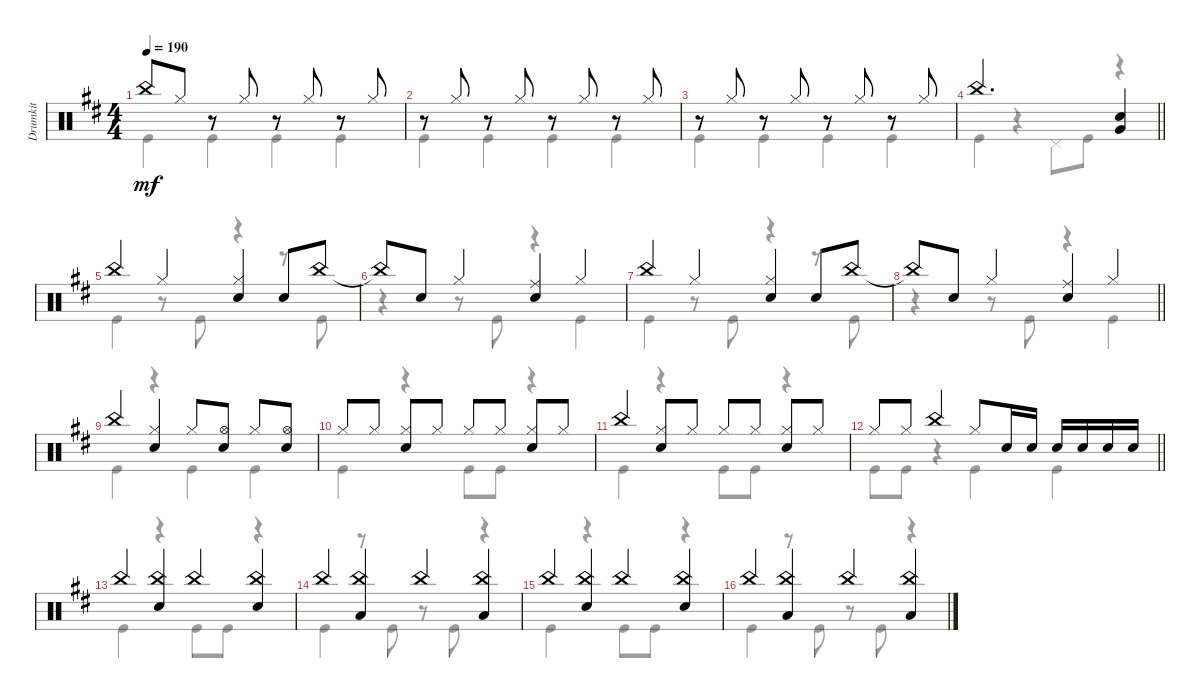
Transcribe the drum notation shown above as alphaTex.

\track ("Drumkit" "Drumkit") {instrument percussion}
\staff {score}
\articulation defaults
\voice
\ts (4 4)
\tempo 190
\clef neutral
\ks d "China (hit)".8{dy mf} "Hi-Hat (closed)".8
r.8 "Hi-Hat (closed)".8 r.8 "Hi-Hat (closed)".8 r.8 "Hi-Hat (closed)".8 |
r.8 "Hi-Hat (closed)".8 r.8 "Hi-Hat (closed)".8 r.8 "Hi-Hat (closed)".8 r.8 "Hi-Hat (closed)".8 |
r.8 "Hi-Hat (closed)".8 r.8 "Hi-Hat (closed)".8 r.8 "Hi-Hat (closed)".8 r.8 "Hi-Hat (closed)".8 |
\barLineRight lightlight "China (hit)".2{d}
("Snare (hit) 2" "Very Low Tom (hit)").4 |
\section ("" "")
"China (hit)".4 "Hi-Hat (closed)".4 ("Hi-Hat (closed)" "Snare (hit) 2").4 "Snare (hit) 2".8 "China (hit)".8 |
"China (hit)"{t}.8 "Snare (hit) 2".8 "Hi-Hat (closed)".4 ("Ride (middle)" "Snare (hit) 2").4 "Hi-Hat (closed)".4 |
"China (hit)".4 "Hi-Hat (closed)".4 ("Hi-Hat (closed)" "Snare (hit) 2").4 "Snare (hit) 2".8 "China (hit)".8 |
\barLineRight lightlight "China (hit)"{t}.8 "Snare (hit) 2".8 "Hi-Hat (closed)".4
("Ride (middle)" "Snare (hit) 2").4 "Hi-Hat (closed)".4 |
\section ("" "")
"China (hit)".4 ("Hi-Hat (closed)" "Snare (hit) 2").4 "Hi-Hat (closed)".8 ("Hi-Hat (open)" "Snare (hit) 2").8 "Hi-Hat (closed)".8 ("Hi-Hat (open)" "Snare (hit) 2").8 |
"Hi-Hat (closed)".8 "Hi-Hat (closed)".8 ("Hi-Hat (closed)" "Snare (hit) 2").8 "Hi-Hat (closed)".8 "Hi-Hat (closed)".8 "Hi-Hat (closed)".8 ("Hi-Hat (closed)" "Snare (hit) 2").8 "Hi-Hat (closed)".8 |
"China (hit)".4 ("Hi-Hat (closed)" "Snare (hit) 2").8 "Hi-Hat (closed)".8 "Hi-Hat (closed)".8 "Hi-Hat (closed)".8 ("Hi-Hat (closed)" "Snare (hit) 2").8 "Hi-Hat (closed)".8 |
\barLineRight lightlight "Hi-Hat (closed)".8 "Hi-Hat (closed)".8 "China (hit)".4 "Hi-Hat (closed)".8 "Snare (hit) 2".16 "Snare (hit) 2".16 "Snare (hit) 2".16 "Snare (hit) 2".16 "Snare (hit) 2".16 "Snare (hit) 2".16
|
\section ("" "")
"China (hit)".4 ("China (hit)" "Snare (hit) 2").4 "China (hit)".4 ("China (hit)" "Snare (hit) 2").4 |
"China (hit)".4 ("China (hit)" "Low Tom (hit)").4 "China (hit)".4 ("China (hit)" "Low Tom (hit)").4 |
"China (hit)".4 ("China (hit)" "Snare (hit) 2").4 "China (hit)".4 ("China (hit)" "Snare (hit) 2").4 |
"China (hit)".4 ("China (hit)" "Low Tom (hit)").4 "China (hit)".4 ("China (hit)" "Low Tom (hit)").4
\voice
\clef neutral
\ottava regular
\simile none
\ks d "Kick (hit)".4{dy mf} "Kick (hit)".4 "Kick (hit)".4 "Kick (hit)".4
|
"Kick (hit)".4 "Kick (hit)".4 "Kick (hit)".4 "Kick (hit)".4 |
"Kick (hit)".4 "Kick (hit)".4 "Kick (hit)".4 "Kick (hit)".4 |
\barLineRight lightlight "Kick (hit)".4
r.4 "Pedal Hi-Hat (hit)".8 "Kick (hit)".8 r.4 |
"Kick (hit)".4 r.8 "Kick (hit)".8 r.4 r.8 "Kick (hit)".8 |
r.4 r.8 "Kick (hit)".8 r.4 "Kick (hit)".4 |
"Kick (hit)".4 r.8 "Kick (hit)".8 r.4 r.8 "Kick (hit)".8 |
\barLineRight lightlight
r.4 r.8 "Kick (hit)".8 r.4 "Kick (hit)".4 |
"Kick (hit)".4 r.4 "Kick (hit)".4 "Kick (hit)".4 |
"Kick (hit)".4 r.4 "Kick (hit)".8 "Kick (hit)".8 r.4 |
"Kick (hit)".4 r.4 "Kick (hit)".8 "Kick (hit)".8 r.4 |
\barLineRight lightlight "Kick (hit)".8 "Kick (hit)".8
r.4 "Kick (hit)".4 "Kick (hit)".4 |
"Kick (hit)".4 r.4 "Kick (hit)".8 "Kick (hit)".8 r.4 |
"Kick (hit)".4 r.8 "Kick (hit)".8 r.8 "Kick (hit)".8 r.4 |
"Kick (hit)".4 r.4 "Kick (hit)".8 "Kick (hit)".8 r.4 |
"Kick (hit)".4 r.8 "Kick (hit)".8 r.8 "Kick (hit)".8 r.4
